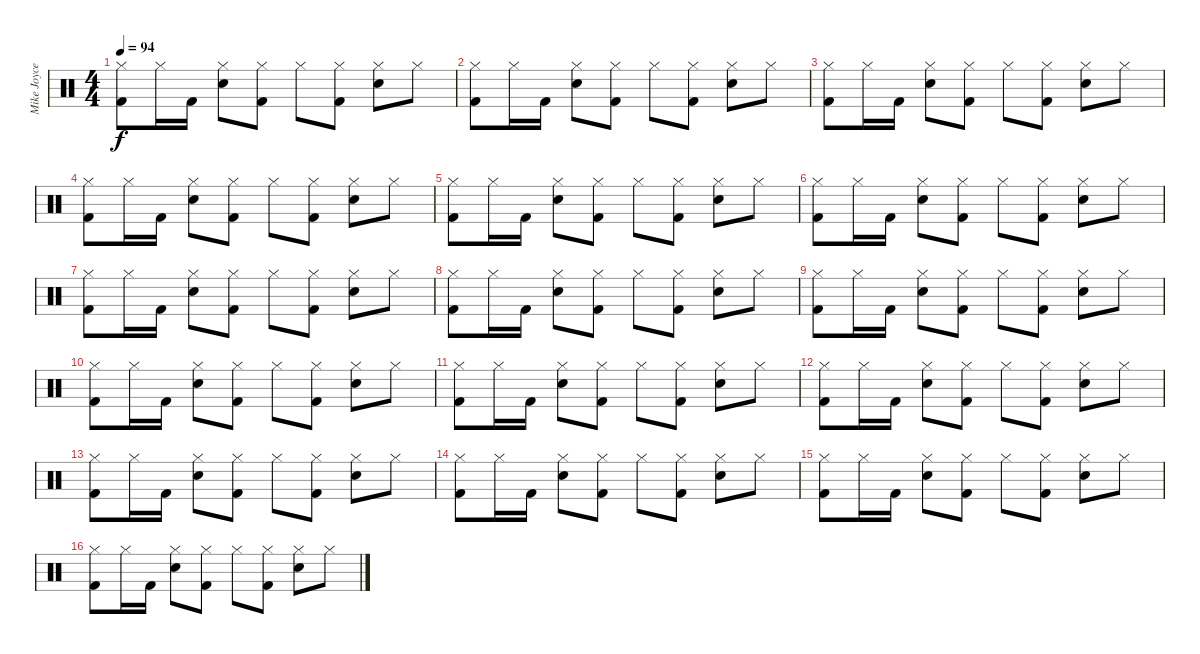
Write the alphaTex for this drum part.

\track ("Mike Joyce" "Mike Joyce") {instrument percussion}
\staff {score}
\articulation defaults
\ts (4 4)
\tempo 94
\clef neutral
\ks c
("Hi-Hat (closed)" "Kick (hit) 2").8{dy f} "Hi-Hat (closed)".16 "Kick (hit) 2".16 ("Hi-Hat (closed)" "Snare (hit) 2").8 ("Hi-Hat (closed)" "Kick (hit) 2").8 "Hi-Hat (closed)".8 ("Hi-Hat (closed)" "Kick (hit) 2").8 ("Hi-Hat (closed)" "Snare (hit) 2").8 "Hi-Hat (closed)".8 |
("Hi-Hat (closed)" "Kick (hit) 2").8 "Hi-Hat (closed)".16 "Kick (hit) 2".16 ("Hi-Hat (closed)" "Snare (hit) 2").8 ("Hi-Hat (closed)" "Kick (hit) 2").8 "Hi-Hat (closed)".8 ("Hi-Hat (closed)" "Kick (hit) 2").8 ("Hi-Hat (closed)" "Snare (hit) 2").8 "Hi-Hat (closed)".8 |
("Hi-Hat (closed)" "Kick (hit) 2").8 "Hi-Hat (closed)".16 "Kick (hit) 2".16 ("Hi-Hat (closed)" "Snare (hit) 2").8 ("Hi-Hat (closed)" "Kick (hit) 2").8 "Hi-Hat (closed)".8 ("Hi-Hat (closed)" "Kick (hit) 2").8 ("Hi-Hat (closed)" "Snare (hit) 2").8 "Hi-Hat (closed)".8 |
("Hi-Hat (closed)" "Kick (hit) 2").8 "Hi-Hat (closed)".16 "Kick (hit) 2".16 ("Hi-Hat (closed)" "Snare (hit) 2").8 ("Hi-Hat (closed)" "Kick (hit) 2").8 "Hi-Hat (closed)".8 ("Hi-Hat (closed)" "Kick (hit) 2").8 ("Hi-Hat (closed)" "Snare (hit) 2").8 "Hi-Hat (closed)".8 |
("Hi-Hat (closed)" "Kick (hit) 2").8 "Hi-Hat (closed)".16 "Kick (hit) 2".16 ("Hi-Hat (closed)" "Snare (hit) 2").8 ("Hi-Hat (closed)" "Kick (hit) 2").8 "Hi-Hat (closed)".8 ("Hi-Hat (closed)" "Kick (hit) 2").8 ("Hi-Hat (closed)" "Snare (hit) 2").8 "Hi-Hat (closed)".8 |
("Hi-Hat (closed)" "Kick (hit) 2").8 "Hi-Hat (closed)".16 "Kick (hit) 2".16 ("Hi-Hat (closed)" "Snare (hit) 2").8 ("Hi-Hat (closed)" "Kick (hit) 2").8 "Hi-Hat (closed)".8 ("Hi-Hat (closed)" "Kick (hit) 2").8 ("Hi-Hat (closed)" "Snare (hit) 2").8 "Hi-Hat (closed)".8 |
("Hi-Hat (closed)" "Kick (hit) 2").8 "Hi-Hat (closed)".16 "Kick (hit) 2".16 ("Hi-Hat (closed)" "Snare (hit) 2").8 ("Hi-Hat (closed)" "Kick (hit) 2").8 "Hi-Hat (closed)".8 ("Hi-Hat (closed)" "Kick (hit) 2").8 ("Hi-Hat (closed)" "Snare (hit) 2").8 "Hi-Hat (closed)".8 |
("Hi-Hat (closed)" "Kick (hit) 2").8 "Hi-Hat (closed)".16 "Kick (hit) 2".16 ("Hi-Hat (closed)" "Snare (hit) 2").8 ("Hi-Hat (closed)" "Kick (hit) 2").8 "Hi-Hat (closed)".8 ("Hi-Hat (closed)" "Kick (hit) 2").8 ("Hi-Hat (closed)" "Snare (hit) 2").8 "Hi-Hat (closed)".8 |
("Hi-Hat (closed)" "Kick (hit) 2").8 "Hi-Hat (closed)".16 "Kick (hit) 2".16 ("Hi-Hat (closed)" "Snare (hit) 2").8 ("Hi-Hat (closed)" "Kick (hit) 2").8 "Hi-Hat (closed)".8 ("Hi-Hat (closed)" "Kick (hit) 2").8 ("Hi-Hat (closed)" "Snare (hit) 2").8 "Hi-Hat (closed)".8 |
("Hi-Hat (closed)" "Kick (hit) 2").8 "Hi-Hat (closed)".16 "Kick (hit) 2".16 ("Hi-Hat (closed)" "Snare (hit) 2").8 ("Hi-Hat (closed)" "Kick (hit) 2").8 "Hi-Hat (closed)".8 ("Hi-Hat (closed)" "Kick (hit) 2").8 ("Hi-Hat (closed)" "Snare (hit) 2").8 "Hi-Hat (closed)".8 |
("Hi-Hat (closed)" "Kick (hit) 2").8 "Hi-Hat (closed)".16 "Kick (hit) 2".16 ("Hi-Hat (closed)" "Snare (hit) 2").8 ("Hi-Hat (closed)" "Kick (hit) 2").8 "Hi-Hat (closed)".8 ("Hi-Hat (closed)" "Kick (hit) 2").8 ("Hi-Hat (closed)" "Snare (hit) 2").8 "Hi-Hat (closed)".8 |
("Hi-Hat (closed)" "Kick (hit) 2").8 "Hi-Hat (closed)".16 "Kick (hit) 2".16 ("Hi-Hat (closed)" "Snare (hit) 2").8 ("Hi-Hat (closed)" "Kick (hit) 2").8 "Hi-Hat (closed)".8 ("Hi-Hat (closed)" "Kick (hit) 2").8 ("Hi-Hat (closed)" "Snare (hit) 2").8 "Hi-Hat (closed)".8 |
("Hi-Hat (closed)" "Kick (hit) 2").8 "Hi-Hat (closed)".16 "Kick (hit) 2".16 ("Hi-Hat (closed)" "Snare (hit) 2").8 ("Hi-Hat (closed)" "Kick (hit) 2").8 "Hi-Hat (closed)".8 ("Hi-Hat (closed)" "Kick (hit) 2").8 ("Hi-Hat (closed)" "Snare (hit) 2").8 "Hi-Hat (closed)".8 |
("Hi-Hat (closed)" "Kick (hit) 2").8 "Hi-Hat (closed)".16 "Kick (hit) 2".16 ("Hi-Hat (closed)" "Snare (hit) 2").8 ("Hi-Hat (closed)" "Kick (hit) 2").8 "Hi-Hat (closed)".8 ("Hi-Hat (closed)" "Kick (hit) 2").8 ("Hi-Hat (closed)" "Snare (hit) 2").8 "Hi-Hat (closed)".8 |
("Hi-Hat (closed)" "Kick (hit) 2").8 "Hi-Hat (closed)".16 "Kick (hit) 2".16 ("Hi-Hat (closed)" "Snare (hit) 2").8 ("Hi-Hat (closed)" "Kick (hit) 2").8 "Hi-Hat (closed)".8 ("Hi-Hat (closed)" "Kick (hit) 2").8 ("Hi-Hat (closed)" "Snare (hit) 2").8 "Hi-Hat (closed)".8 |
("Hi-Hat (closed)" "Kick (hit) 2").8 "Hi-Hat (closed)".16 "Kick (hit) 2".16 ("Hi-Hat (closed)" "Snare (hit) 2").8 ("Hi-Hat (closed)" "Kick (hit) 2").8 "Hi-Hat (closed)".8 ("Hi-Hat (closed)" "Kick (hit) 2").8 ("Hi-Hat (closed)" "Snare (hit) 2").8 "Hi-Hat (closed)".8
